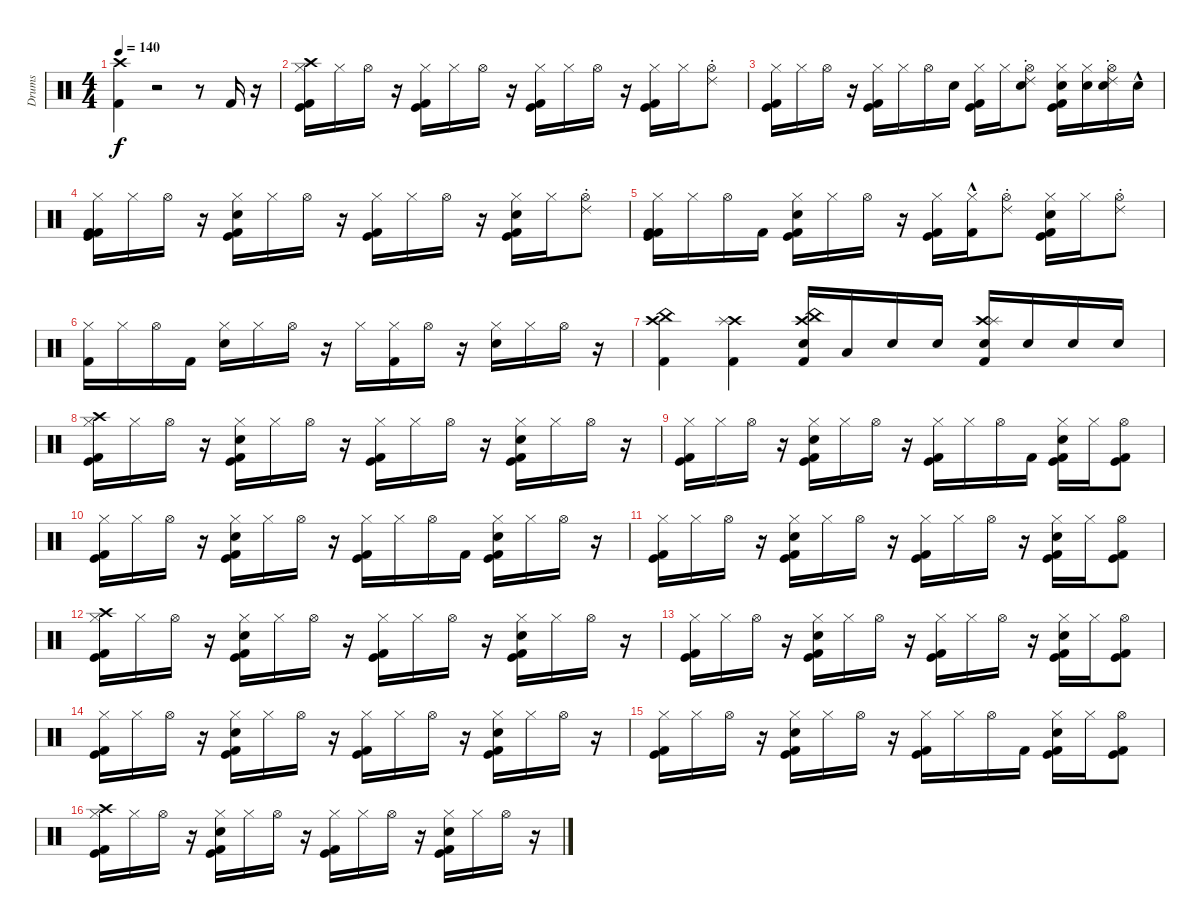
\track ("Drums" "Drums") {instrument percussion}
\staff {score}
\articulation defaults
\ts (4 4)
\tempo 140
\clef neutral
\ks c
("Kick (hit) 2" "Crash high (hit)").4{dy f} r.2 r.8 "Kick (hit) 2".16 r.16 |
("Kick (hit) 2" "Hi-Hat (closed)" "Crash high (hit)" "Kick (hit)").16 "Hi-Hat (closed)".16 "Hi-Hat (open)".16 r.16 ("Kick (hit)" "Kick (hit) 2" "Hi-Hat (closed)").16 "Hi-Hat (closed)".16 "Hi-Hat (open)".16 r.16 ("Kick (hit)" "Kick (hit) 2" "Hi-Hat (closed)").16 "Hi-Hat (closed)".16 "Hi-Hat (open)".16 r.16 ("Kick (hit)" "Kick (hit) 2" "Hi-Hat (closed)").16 "Hi-Hat (closed)".16 ("Ride (choke) 2" "Hi-Hat (open)").8 |
("Hi-Hat (closed)" "Kick (hit) 2" "Kick (hit)").16 "Hi-Hat (closed)".16 "Hi-Hat (open)".16 r.16 ("Hi-Hat (closed)" "Kick (hit)" "Kick (hit) 2").16 "Hi-Hat (closed)".16 "Hi-Hat (open)".16 "Snare (hit) 2".16 ("Hi-Hat (closed)" "Kick (hit)" "Kick (hit) 2").16 "Hi-Hat (closed)".16 ("Snare (hit) 2" "Ride (choke) 2" "Hi-Hat (open)").8 ("Kick (hit) 2" "Hi-Hat (closed)" "Kick (hit)" "Snare (hit) 2").16 ("Snare (hit) 2" "Hi-Hat (closed)").16 ("Snare (hit) 2" "Ride (choke) 2" "Hi-Hat (open)").16 "Snare (hit) 2"{hac}.16 |
("Hi-Hat (closed)" "Kick (hit) 2" "Kick (hit) 2" "Kick (hit)").16 "Hi-Hat (closed)".16 "Hi-Hat (open)".16 r.16 ("Hi-Hat (closed)" "Hand Clap (hit)" "Kick (hit)" "Kick (hit) 2").16 "Hi-Hat (closed)".16 "Hi-Hat (open)".16 r.16 ("Hi-Hat (closed)" "Kick (hit)" "Kick (hit) 2").16 "Hi-Hat (closed)".16 "Hi-Hat (open)".16 r.16 ("Hand Clap (hit)" "Hi-Hat (closed)" "Kick (hit)" "Kick (hit) 2").16 "Hi-Hat (closed)".16 ("Hi-Hat (open)" "Ride (choke) 2").8 |
("Hi-Hat (closed)" "Kick (hit) 2" "Kick (hit) 2" "Kick (hit)").16 "Hi-Hat (closed)".16 "Hi-Hat (open)".16 "Kick (hit) 2".16 ("Hi-Hat (closed)" "Hand Clap (hit)" "Kick (hit)" "Kick (hit) 2").16 "Hi-Hat (closed)".16 "Hi-Hat (open)".16 r.16 ("Hi-Hat (closed)" "Kick (hit)" "Kick (hit) 2").16 ("Hi-Hat (closed)" "Kick (hit) 2"{hac}).16 ("Hi-Hat (open)" "Ride (choke) 2").8 ("Hand Clap (hit)" "Hi-Hat (closed)" "Kick (hit)" "Kick (hit) 2").16 "Hi-Hat (closed)".16 ("Hi-Hat (open)" "Ride (choke) 2").8 |
("Kick (hit) 2" "Hi-Hat (closed)").16 "Hi-Hat (closed)".16 "Hi-Hat (open)".16 "Kick (hit) 2".16 ("Hand Clap (hit)" "Hi-Hat (closed)").16 "Hi-Hat (closed)".16 "Hi-Hat (open)".16 r.16 "Hi-Hat (closed)".16 ("Kick (hit) 2" "Hi-Hat (closed)").16 "Hi-Hat (open)".16 r.16 ("Hi-Hat (closed)" "Hand Clap (hit)").16 "Hi-Hat (closed)".16 "Hi-Hat (open)".16 r.16 |
("Crash high (hit)" "China (hit)" "Kick (hit) 2").4 ("Crash high (hit)" "Splash (hit)" "Kick (hit) 2").4 ("Crash high (hit)" "China (hit)" "Kick (hit) 2" "Electric Snare (hit)").16 "Low Floor Tom (hit)".16 "Electric Snare (hit)".16 "Snare (hit) 2".16 ("Electric Snare (hit)" "Crash high (hit)" "Splash (hit)" "Kick (hit) 2").16 "Electric Snare (hit)".16 "Electric Snare (hit)".16 "Electric Snare (hit)".16 |
("Crash high (hit)" "Kick (hit)" "Kick (hit) 2" "Hi-Hat (closed)").16 "Hi-Hat (closed)".16 "Hi-Hat (open)".16 r.16 ("Snare (hit) 2" "Hi-Hat (closed)" "Kick (hit) 2" "Kick (hit)").16 "Hi-Hat (closed)".16 "Hi-Hat (open)".16 r.16 ("Kick (hit)" "Kick (hit) 2" "Hi-Hat (closed)").16 "Hi-Hat (closed)".16 "Hi-Hat (open)".16 r.16 ("Kick (hit) 2" "Hi-Hat (closed)" "Snare (hit) 2" "Kick (hit)").16 "Hi-Hat (closed)".16 "Hi-Hat (open)".16 r.16 |
("Kick (hit) 2" "Hi-Hat (closed)" "Kick (hit)").16 "Hi-Hat (closed)".16 "Hi-Hat (open)".16 r.16 ("Kick (hit) 2" "Kick (hit)" "Hi-Hat (closed)" "Snare (hit) 2").16 "Hi-Hat (closed)".16 "Hi-Hat (open)".16 r.16 ("Kick (hit) 2" "Hi-Hat (closed)" "Kick (hit)").16 "Hi-Hat (closed)".16 "Hi-Hat (open)".16 "Kick (hit) 2".16 ("Hi-Hat (closed)" "Snare (hit) 2" "Kick (hit) 2" "Kick (hit)").16 "Hi-Hat (closed)".16 ("Hi-Hat (open)" "Kick (hit)" "Kick (hit) 2").8 |
("Kick (hit)" "Kick (hit) 2" "Hi-Hat (closed)").16 "Hi-Hat (closed)".16 "Hi-Hat (open)".16 r.16 ("Hi-Hat (closed)" "Kick (hit)" "Kick (hit) 2" "Snare (hit) 2").16 "Hi-Hat (closed)".16 "Hi-Hat (open)".16 r.16 ("Hi-Hat (closed)" "Kick (hit) 2" "Kick (hit)").16 "Hi-Hat (closed)".16 "Hi-Hat (open)".16 "Kick (hit) 2".16 ("Kick (hit) 2" "Hi-Hat (closed)" "Kick (hit)" "Snare (hit) 2").16 "Hi-Hat (closed)".16 "Hi-Hat (open)".16 r.16 |
("Kick (hit)" "Hi-Hat (closed)" "Kick (hit) 2").16 "Hi-Hat (closed)".16 "Hi-Hat (open)".16 r.16 ("Hi-Hat (closed)" "Kick (hit) 2" "Kick (hit)" "Snare (hit) 2").16 "Hi-Hat (closed)".16 "Hi-Hat (open)".16 r.16 ("Kick (hit) 2" "Kick (hit)" "Hi-Hat (closed)").16 "Hi-Hat (closed)".16 "Hi-Hat (open)".16 r.16 ("Kick (hit) 2" "Hi-Hat (closed)" "Kick (hit)" "Snare (hit) 2").16 "Hi-Hat (closed)".16 ("Kick (hit)" "Hi-Hat (open)" "Kick (hit) 2").8 |
("Crash high (hit)" "Kick (hit)" "Kick (hit) 2" "Hi-Hat (closed)").16 "Hi-Hat (closed)".16 "Hi-Hat (open)".16 r.16 ("Snare (hit) 2" "Hi-Hat (closed)" "Kick (hit) 2" "Kick (hit)").16 "Hi-Hat (closed)".16 "Hi-Hat (open)".16 r.16 ("Kick (hit)" "Kick (hit) 2" "Hi-Hat (closed)").16 "Hi-Hat (closed)".16 "Hi-Hat (open)".16 r.16 ("Kick (hit) 2" "Hi-Hat (closed)" "Snare (hit) 2" "Kick (hit)").16 "Hi-Hat (closed)".16 "Hi-Hat (open)".16 r.16 |
("Kick (hit) 2" "Hi-Hat (closed)" "Kick (hit)").16 "Hi-Hat (closed)".16 "Hi-Hat (open)".16 r.16 ("Kick (hit) 2" "Kick (hit)" "Hi-Hat (closed)" "Snare (hit) 2").16 "Hi-Hat (closed)".16 "Hi-Hat (open)".16 r.16 ("Kick (hit) 2" "Hi-Hat (closed)" "Kick (hit)").16 "Hi-Hat (closed)".16 "Hi-Hat (open)".16 r.16 ("Hi-Hat (closed)" "Snare (hit) 2" "Kick (hit) 2" "Kick (hit)").16 "Hi-Hat (closed)".16 ("Hi-Hat (open)" "Kick (hit)" "Kick (hit) 2").8 |
("Kick (hit)" "Kick (hit) 2" "Hi-Hat (closed)").16 "Hi-Hat (closed)".16 "Hi-Hat (open)".16 r.16 ("Hi-Hat (closed)" "Kick (hit)" "Kick (hit) 2" "Snare (hit) 2").16 "Hi-Hat (closed)".16 "Hi-Hat (open)".16 r.16 ("Hi-Hat (closed)" "Kick (hit) 2" "Kick (hit)").16 "Hi-Hat (closed)".16 "Hi-Hat (open)".16 r.16 ("Kick (hit) 2" "Hi-Hat (closed)" "Kick (hit)" "Snare (hit) 2").16 "Hi-Hat (closed)".16 "Hi-Hat (open)".16 r.16 |
("Kick (hit)" "Hi-Hat (closed)" "Kick (hit) 2").16 "Hi-Hat (closed)".16 "Hi-Hat (open)".16 r.16 ("Hi-Hat (closed)" "Kick (hit) 2" "Kick (hit)" "Snare (hit) 2").16 "Hi-Hat (closed)".16 "Hi-Hat (open)".16 r.16 ("Kick (hit) 2" "Kick (hit)" "Hi-Hat (closed)").16 "Hi-Hat (closed)".16 "Hi-Hat (open)".16 "Kick (hit) 2".16 ("Kick (hit) 2" "Hi-Hat (closed)" "Kick (hit)" "Snare (hit) 2").16 "Hi-Hat (closed)".16 ("Kick (hit)" "Hi-Hat (open)" "Kick (hit) 2").8 |
("Crash high (hit)" "Kick (hit)" "Kick (hit) 2" "Hi-Hat (closed)").16 "Hi-Hat (closed)".16 "Hi-Hat (open)".16 r.16 ("Snare (hit) 2" "Hi-Hat (closed)" "Kick (hit) 2" "Kick (hit)").16 "Hi-Hat (closed)".16 "Hi-Hat (open)".16 r.16 ("Kick (hit)" "Kick (hit) 2" "Hi-Hat (closed)").16 "Hi-Hat (closed)".16 "Hi-Hat (open)".16 r.16 ("Kick (hit) 2" "Hi-Hat (closed)" "Snare (hit) 2" "Kick (hit)").16 "Hi-Hat (closed)".16 "Hi-Hat (open)".16 r.16
